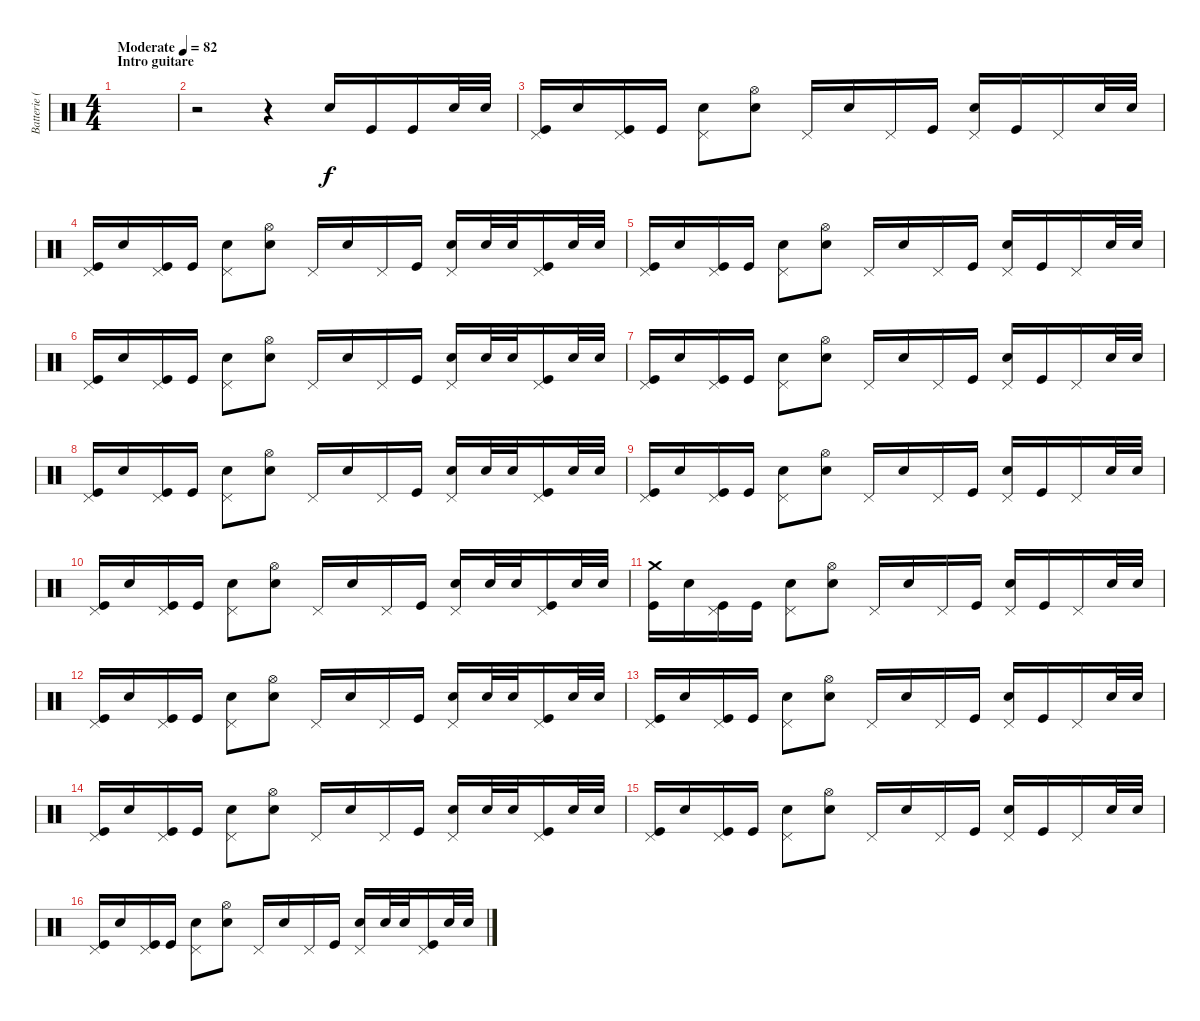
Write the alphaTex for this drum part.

\track ("Batterie (Steve)" "Batterie (") {instrument percussion}
\staff {score}
\articulation defaults
\ts (4 4)
\section ("" "Intro guitare")
\tempo (82 "Moderate")
\clef neutral
\ks c
|
r.2 r.4 "Electric Snare (hit)".16 "Kick (hit)".16 "Kick (hit)".16 "Electric Snare (hit)".32 "Electric Snare (hit)".32 |
("Pedal Hi-Hat (hit)" "Kick (hit)").16 "Electric Snare (hit)".16 ("Pedal Hi-Hat (hit)" "Kick (hit)").16 "Kick (hit)".16 ("Pedal Hi-Hat (hit)" "Electric Snare (hit)").8 ("Hi-Hat (open)" "Electric Snare (hit)").8 "Pedal Hi-Hat (hit)".16 "Electric Snare (hit)".16 "Pedal Hi-Hat (hit)".16 "Kick (hit)".16 ("Pedal Hi-Hat (hit)" "Electric Snare (hit)").16 "Kick (hit)".16 "Pedal Hi-Hat (hit)".16 "Electric Snare (hit)".32 "Electric Snare (hit)".32 |
("Pedal Hi-Hat (hit)" "Kick (hit)").16 "Electric Snare (hit)".16 ("Pedal Hi-Hat (hit)" "Kick (hit)").16 "Kick (hit)".16 ("Pedal Hi-Hat (hit)" "Electric Snare (hit)").8 ("Hi-Hat (open)" "Electric Snare (hit)").8 "Pedal Hi-Hat (hit)".16 "Electric Snare (hit)".16 "Pedal Hi-Hat (hit)".16 "Kick (hit)".16 ("Pedal Hi-Hat (hit)" "Electric Snare (hit)").16 "Electric Snare (hit)".32 "Electric Snare (hit)".32 ("Pedal Hi-Hat (hit)" "Kick (hit)").16 "Electric Snare (hit)".32 "Electric Snare (hit)".32 |
("Pedal Hi-Hat (hit)" "Kick (hit)").16 "Electric Snare (hit)".16 ("Pedal Hi-Hat (hit)" "Kick (hit)").16 "Kick (hit)".16 ("Pedal Hi-Hat (hit)" "Electric Snare (hit)").8 ("Hi-Hat (open)" "Electric Snare (hit)").8 "Pedal Hi-Hat (hit)".16 "Electric Snare (hit)".16 "Pedal Hi-Hat (hit)".16 "Kick (hit)".16 ("Pedal Hi-Hat (hit)" "Electric Snare (hit)").16 "Kick (hit)".16 "Pedal Hi-Hat (hit)".16 "Electric Snare (hit)".32 "Electric Snare (hit)".32 |
("Pedal Hi-Hat (hit)" "Kick (hit)").16 "Electric Snare (hit)".16 ("Pedal Hi-Hat (hit)" "Kick (hit)").16 "Kick (hit)".16 ("Pedal Hi-Hat (hit)" "Electric Snare (hit)").8 ("Hi-Hat (open)" "Electric Snare (hit)").8 "Pedal Hi-Hat (hit)".16 "Electric Snare (hit)".16 "Pedal Hi-Hat (hit)".16 "Kick (hit)".16 ("Pedal Hi-Hat (hit)" "Electric Snare (hit)").16 "Electric Snare (hit)".32 "Electric Snare (hit)".32 ("Pedal Hi-Hat (hit)" "Kick (hit)").16 "Electric Snare (hit)".32 "Electric Snare (hit)".32 |
("Pedal Hi-Hat (hit)" "Kick (hit)").16 "Electric Snare (hit)".16 ("Pedal Hi-Hat (hit)" "Kick (hit)").16 "Kick (hit)".16 ("Pedal Hi-Hat (hit)" "Electric Snare (hit)").8 ("Hi-Hat (open)" "Electric Snare (hit)").8 "Pedal Hi-Hat (hit)".16 "Electric Snare (hit)".16 "Pedal Hi-Hat (hit)".16 "Kick (hit)".16 ("Pedal Hi-Hat (hit)" "Electric Snare (hit)").16 "Kick (hit)".16 "Pedal Hi-Hat (hit)".16 "Electric Snare (hit)".32 "Electric Snare (hit)".32 |
("Pedal Hi-Hat (hit)" "Kick (hit)").16 "Electric Snare (hit)".16 ("Pedal Hi-Hat (hit)" "Kick (hit)").16 "Kick (hit)".16 ("Pedal Hi-Hat (hit)" "Electric Snare (hit)").8 ("Hi-Hat (open)" "Electric Snare (hit)").8 "Pedal Hi-Hat (hit)".16 "Electric Snare (hit)".16 "Pedal Hi-Hat (hit)".16 "Kick (hit)".16 ("Pedal Hi-Hat (hit)" "Electric Snare (hit)").16 "Electric Snare (hit)".32 "Electric Snare (hit)".32 ("Pedal Hi-Hat (hit)" "Kick (hit)").16 "Electric Snare (hit)".32 "Electric Snare (hit)".32 |
("Pedal Hi-Hat (hit)" "Kick (hit)").16 "Electric Snare (hit)".16 ("Pedal Hi-Hat (hit)" "Kick (hit)").16 "Kick (hit)".16 ("Pedal Hi-Hat (hit)" "Electric Snare (hit)").8 ("Hi-Hat (open)" "Electric Snare (hit)").8 "Pedal Hi-Hat (hit)".16 "Electric Snare (hit)".16 "Pedal Hi-Hat (hit)".16 "Kick (hit)".16 ("Pedal Hi-Hat (hit)" "Electric Snare (hit)").16 "Kick (hit)".16 "Pedal Hi-Hat (hit)".16 "Electric Snare (hit)".32 "Electric Snare (hit)".32 |
("Pedal Hi-Hat (hit)" "Kick (hit)").16 "Electric Snare (hit)".16 ("Pedal Hi-Hat (hit)" "Kick (hit)").16 "Kick (hit)".16 ("Pedal Hi-Hat (hit)" "Electric Snare (hit)").8 ("Hi-Hat (open)" "Electric Snare (hit)").8 "Pedal Hi-Hat (hit)".16 "Electric Snare (hit)".16 "Pedal Hi-Hat (hit)".16 "Kick (hit)".16 ("Pedal Hi-Hat (hit)" "Electric Snare (hit)").16 "Electric Snare (hit)".32 "Electric Snare (hit)".32 ("Pedal Hi-Hat (hit)" "Kick (hit)").16 "Electric Snare (hit)".32 "Electric Snare (hit)".32 |
("Crash medium (hit)" "Kick (hit)").16 "Electric Snare (hit)".16 ("Pedal Hi-Hat (hit)" "Kick (hit)").16 "Kick (hit)".16 ("Pedal Hi-Hat (hit)" "Electric Snare (hit)").8 ("Hi-Hat (open)" "Electric Snare (hit)").8 "Pedal Hi-Hat (hit)".16 "Electric Snare (hit)".16 "Pedal Hi-Hat (hit)".16 "Kick (hit)".16 ("Pedal Hi-Hat (hit)" "Electric Snare (hit)").16 "Kick (hit)".16 "Pedal Hi-Hat (hit)".16 "Electric Snare (hit)".32 "Electric Snare (hit)".32 |
("Pedal Hi-Hat (hit)" "Kick (hit)").16 "Electric Snare (hit)".16 ("Pedal Hi-Hat (hit)" "Kick (hit)").16 "Kick (hit)".16 ("Pedal Hi-Hat (hit)" "Electric Snare (hit)").8 ("Hi-Hat (open)" "Electric Snare (hit)").8 "Pedal Hi-Hat (hit)".16 "Electric Snare (hit)".16 "Pedal Hi-Hat (hit)".16 "Kick (hit)".16 ("Pedal Hi-Hat (hit)" "Electric Snare (hit)").16 "Electric Snare (hit)".32 "Electric Snare (hit)".32 ("Pedal Hi-Hat (hit)" "Kick (hit)").16 "Electric Snare (hit)".32 "Electric Snare (hit)".32 |
("Pedal Hi-Hat (hit)" "Kick (hit)").16 "Electric Snare (hit)".16 ("Pedal Hi-Hat (hit)" "Kick (hit)").16 "Kick (hit)".16 ("Pedal Hi-Hat (hit)" "Electric Snare (hit)").8 ("Hi-Hat (open)" "Electric Snare (hit)").8 "Pedal Hi-Hat (hit)".16 "Electric Snare (hit)".16 "Pedal Hi-Hat (hit)".16 "Kick (hit)".16 ("Pedal Hi-Hat (hit)" "Electric Snare (hit)").16 "Kick (hit)".16 "Pedal Hi-Hat (hit)".16 "Electric Snare (hit)".32 "Electric Snare (hit)".32 |
("Pedal Hi-Hat (hit)" "Kick (hit)").16 "Electric Snare (hit)".16 ("Pedal Hi-Hat (hit)" "Kick (hit)").16 "Kick (hit)".16 ("Pedal Hi-Hat (hit)" "Electric Snare (hit)").8 ("Hi-Hat (open)" "Electric Snare (hit)").8 "Pedal Hi-Hat (hit)".16 "Electric Snare (hit)".16 "Pedal Hi-Hat (hit)".16 "Kick (hit)".16 ("Pedal Hi-Hat (hit)" "Electric Snare (hit)").16 "Electric Snare (hit)".32 "Electric Snare (hit)".32 ("Pedal Hi-Hat (hit)" "Kick (hit)").16 "Electric Snare (hit)".32 "Electric Snare (hit)".32 |
("Pedal Hi-Hat (hit)" "Kick (hit)").16 "Electric Snare (hit)".16 ("Pedal Hi-Hat (hit)" "Kick (hit)").16 "Kick (hit)".16 ("Pedal Hi-Hat (hit)" "Electric Snare (hit)").8 ("Hi-Hat (open)" "Electric Snare (hit)").8 "Pedal Hi-Hat (hit)".16 "Electric Snare (hit)".16 "Pedal Hi-Hat (hit)".16 "Kick (hit)".16 ("Pedal Hi-Hat (hit)" "Electric Snare (hit)").16 "Kick (hit)".16 "Pedal Hi-Hat (hit)".16 "Electric Snare (hit)".32 "Electric Snare (hit)".32 |
("Pedal Hi-Hat (hit)" "Kick (hit)").16 "Electric Snare (hit)".16 ("Pedal Hi-Hat (hit)" "Kick (hit)").16 "Kick (hit)".16 ("Pedal Hi-Hat (hit)" "Electric Snare (hit)").8 ("Hi-Hat (open)" "Electric Snare (hit)").8 "Pedal Hi-Hat (hit)".16 "Electric Snare (hit)".16 "Pedal Hi-Hat (hit)".16 "Kick (hit)".16 ("Pedal Hi-Hat (hit)" "Electric Snare (hit)").16 "Electric Snare (hit)".32 "Electric Snare (hit)".32 ("Pedal Hi-Hat (hit)" "Kick (hit)").16 "Electric Snare (hit)".32 "Electric Snare (hit)".32
